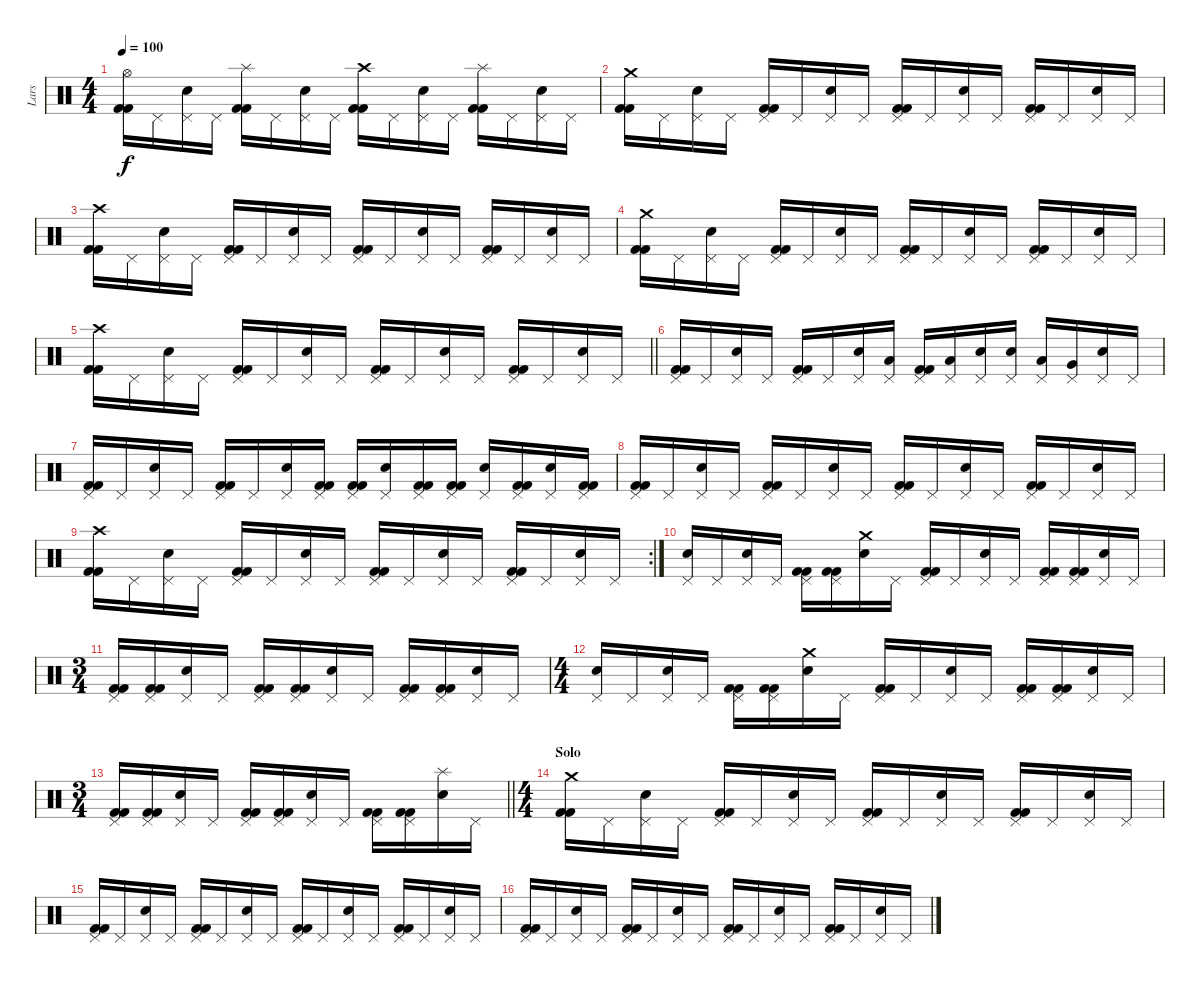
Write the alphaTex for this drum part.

\track ("Lars" "Lars") {instrument percussion}
\staff {score}
\articulation defaults
\ts (4 4)
\tempo 100
\clef neutral
\ks c
("Kick (hit) 2" "Kick (hit) 2" "Hi-Hat (open)").16{dy f} "Pedal Hi-Hat (hit)".16 ("Electric Snare (hit)" "Pedal Hi-Hat (hit)").16 "Pedal Hi-Hat (hit)".16 ("Kick (hit) 2" "Kick (hit) 2" "Splash (hit)").16 "Pedal Hi-Hat (hit)".16 ("Electric Snare (hit)" "Pedal Hi-Hat (hit)").16 "Pedal Hi-Hat (hit)".16 ("Kick (hit) 2" "Kick (hit) 2" "Crash high (hit)").16 "Pedal Hi-Hat (hit)".16 ("Electric Snare (hit)" "Pedal Hi-Hat (hit)").16 "Pedal Hi-Hat (hit)".16 ("Kick (hit) 2" "Kick (hit) 2" "Splash (hit)").16 "Pedal Hi-Hat (hit)".16 ("Electric Snare (hit)" "Pedal Hi-Hat (hit)").16 "Pedal Hi-Hat (hit)".16 |
("Kick (hit) 2" "Kick (hit) 2" "Crash medium (hit)").16 "Pedal Hi-Hat (hit)".16 ("Electric Snare (hit)" "Pedal Hi-Hat (hit)").16 "Pedal Hi-Hat (hit)".16 ("Kick (hit) 2" "Kick (hit) 2" "Pedal Hi-Hat (hit)").16 "Pedal Hi-Hat (hit)".16 ("Electric Snare (hit)" "Pedal Hi-Hat (hit)").16 "Pedal Hi-Hat (hit)".16 ("Kick (hit) 2" "Kick (hit) 2" "Pedal Hi-Hat (hit)").16 "Pedal Hi-Hat (hit)".16 ("Electric Snare (hit)" "Pedal Hi-Hat (hit)").16 "Pedal Hi-Hat (hit)".16 ("Kick (hit) 2" "Kick (hit) 2" "Pedal Hi-Hat (hit)").16 "Pedal Hi-Hat (hit)".16 ("Electric Snare (hit)" "Pedal Hi-Hat (hit)").16 "Pedal Hi-Hat (hit)".16 |
("Kick (hit) 2" "Kick (hit) 2" "Crash high (hit)").16 "Pedal Hi-Hat (hit)".16 ("Electric Snare (hit)" "Pedal Hi-Hat (hit)").16 "Pedal Hi-Hat (hit)".16 ("Kick (hit) 2" "Kick (hit) 2" "Pedal Hi-Hat (hit)").16 "Pedal Hi-Hat (hit)".16 ("Electric Snare (hit)" "Pedal Hi-Hat (hit)").16 "Pedal Hi-Hat (hit)".16 ("Kick (hit) 2" "Kick (hit) 2" "Pedal Hi-Hat (hit)").16 "Pedal Hi-Hat (hit)".16 ("Electric Snare (hit)" "Pedal Hi-Hat (hit)").16 "Pedal Hi-Hat (hit)".16 ("Kick (hit) 2" "Kick (hit) 2" "Pedal Hi-Hat (hit)").16 "Pedal Hi-Hat (hit)".16 ("Electric Snare (hit)" "Pedal Hi-Hat (hit)").16 "Pedal Hi-Hat (hit)".16 |
("Kick (hit) 2" "Kick (hit) 2" "Crash medium (hit)").16 "Pedal Hi-Hat (hit)".16 ("Electric Snare (hit)" "Pedal Hi-Hat (hit)").16 "Pedal Hi-Hat (hit)".16 ("Kick (hit) 2" "Kick (hit) 2" "Pedal Hi-Hat (hit)").16 "Pedal Hi-Hat (hit)".16 ("Electric Snare (hit)" "Pedal Hi-Hat (hit)").16 "Pedal Hi-Hat (hit)".16 ("Kick (hit) 2" "Kick (hit) 2" "Pedal Hi-Hat (hit)").16 "Pedal Hi-Hat (hit)".16 ("Electric Snare (hit)" "Pedal Hi-Hat (hit)").16 "Pedal Hi-Hat (hit)".16 ("Kick (hit) 2" "Kick (hit) 2" "Pedal Hi-Hat (hit)").16 "Pedal Hi-Hat (hit)".16 ("Electric Snare (hit)" "Pedal Hi-Hat (hit)").16 "Pedal Hi-Hat (hit)".16 |
\barLineRight lightlight
("Kick (hit) 2" "Kick (hit) 2" "Crash high (hit)").16 "Pedal Hi-Hat (hit)".16 ("Electric Snare (hit)" "Pedal Hi-Hat (hit)").16 "Pedal Hi-Hat (hit)".16 ("Kick (hit) 2" "Kick (hit) 2" "Pedal Hi-Hat (hit)").16 "Pedal Hi-Hat (hit)".16 ("Electric Snare (hit)" "Pedal Hi-Hat (hit)").16 "Pedal Hi-Hat (hit)".16 ("Kick (hit) 2" "Kick (hit) 2" "Pedal Hi-Hat (hit)").16 "Pedal Hi-Hat (hit)".16 ("Electric Snare (hit)" "Pedal Hi-Hat (hit)").16 "Pedal Hi-Hat (hit)".16 ("Kick (hit) 2" "Kick (hit) 2" "Pedal Hi-Hat (hit)").16 "Pedal Hi-Hat (hit)".16 ("Electric Snare (hit)" "Pedal Hi-Hat (hit)").16 "Pedal Hi-Hat (hit)".16 |
\section ("" "")
("Kick (hit) 2" "Kick (hit) 2" "Pedal Hi-Hat (hit)").16 "Pedal Hi-Hat (hit)".16 ("Electric Snare (hit)" "Pedal Hi-Hat (hit)").16 "Pedal Hi-Hat (hit)".16 ("Kick (hit) 2" "Kick (hit) 2" "Pedal Hi-Hat (hit)").16 "Pedal Hi-Hat (hit)".16 ("Electric Snare (hit)" "Pedal Hi-Hat (hit)").16 ("Low Tom (hit)" "Pedal Hi-Hat (hit)").16 ("Kick (hit) 2" "Kick (hit) 2" "Pedal Hi-Hat (hit)").16 ("Low Tom (hit)" "Pedal Hi-Hat (hit)").16 ("Electric Snare (hit)" "Pedal Hi-Hat (hit)").16 ("Electric Snare (hit)" "Pedal Hi-Hat (hit)").16 ("Low Tom (hit)" "Pedal Hi-Hat (hit)").16 ("Very Low Tom (hit)" "Pedal Hi-Hat (hit)").16 ("Electric Snare (hit)" "Pedal Hi-Hat (hit)").16 "Pedal Hi-Hat (hit)".16 |
("Kick (hit) 2" "Kick (hit) 2" "Pedal Hi-Hat (hit)").16 "Pedal Hi-Hat (hit)".16 ("Electric Snare (hit)" "Pedal Hi-Hat (hit)").16 "Pedal Hi-Hat (hit)".16 ("Kick (hit) 2" "Kick (hit) 2" "Pedal Hi-Hat (hit)").16 "Pedal Hi-Hat (hit)".16 ("Electric Snare (hit)" "Pedal Hi-Hat (hit)").16 ("Kick (hit) 2" "Kick (hit) 2" "Pedal Hi-Hat (hit)").16 ("Kick (hit) 2" "Kick (hit) 2" "Pedal Hi-Hat (hit)").16 ("Electric Snare (hit)" "Pedal Hi-Hat (hit)").16 ("Kick (hit) 2" "Kick (hit) 2" "Pedal Hi-Hat (hit)").16 ("Kick (hit) 2" "Kick (hit) 2" "Pedal Hi-Hat (hit)").16 ("Electric Snare (hit)" "Pedal Hi-Hat (hit)").16 ("Kick (hit) 2" "Kick (hit) 2" "Pedal Hi-Hat (hit)").16 ("Electric Snare (hit)" "Pedal Hi-Hat (hit)").16 ("Kick (hit) 2" "Kick (hit) 2" "Pedal Hi-Hat (hit)").16 |
("Kick (hit) 2" "Kick (hit) 2" "Pedal Hi-Hat (hit)").16 "Pedal Hi-Hat (hit)".16 ("Electric Snare (hit)" "Pedal Hi-Hat (hit)").16 "Pedal Hi-Hat (hit)".16 ("Kick (hit) 2" "Kick (hit) 2" "Pedal Hi-Hat (hit)").16 "Pedal Hi-Hat (hit)".16 ("Electric Snare (hit)" "Pedal Hi-Hat (hit)").16 "Pedal Hi-Hat (hit)".16 ("Kick (hit) 2" "Kick (hit) 2" "Pedal Hi-Hat (hit)").16 "Pedal Hi-Hat (hit)".16 ("Electric Snare (hit)" "Pedal Hi-Hat (hit)").16 "Pedal Hi-Hat (hit)".16 ("Kick (hit) 2" "Kick (hit) 2" "Pedal Hi-Hat (hit)").16 "Pedal Hi-Hat (hit)".16 ("Electric Snare (hit)" "Pedal Hi-Hat (hit)").16 "Pedal Hi-Hat (hit)".16 |
\rc 2
("Kick (hit) 2" "Kick (hit) 2" "Crash high (hit)").16 "Pedal Hi-Hat (hit)".16 ("Electric Snare (hit)" "Pedal Hi-Hat (hit)").16 "Pedal Hi-Hat (hit)".16 ("Kick (hit) 2" "Kick (hit) 2" "Pedal Hi-Hat (hit)").16 "Pedal Hi-Hat (hit)".16 ("Electric Snare (hit)" "Pedal Hi-Hat (hit)").16 "Pedal Hi-Hat (hit)".16 ("Kick (hit) 2" "Kick (hit) 2" "Pedal Hi-Hat (hit)").16 "Pedal Hi-Hat (hit)".16 ("Electric Snare (hit)" "Pedal Hi-Hat (hit)").16 "Pedal Hi-Hat (hit)".16 ("Kick (hit) 2" "Kick (hit) 2" "Pedal Hi-Hat (hit)").16 "Pedal Hi-Hat (hit)".16 ("Electric Snare (hit)" "Pedal Hi-Hat (hit)").16 "Pedal Hi-Hat (hit)".16 |
("Electric Snare (hit)" "Pedal Hi-Hat (hit)").16 "Pedal Hi-Hat (hit)".16 ("Electric Snare (hit)" "Pedal Hi-Hat (hit)").16 "Pedal Hi-Hat (hit)".16 ("Kick (hit) 2" "Kick (hit) 2" "Pedal Hi-Hat (hit)").16 ("Kick (hit) 2" "Kick (hit) 2" "Pedal Hi-Hat (hit)").16 ("Electric Snare (hit)" "Crash medium (hit)").16 "Pedal Hi-Hat (hit)".16 ("Kick (hit) 2" "Kick (hit) 2" "Pedal Hi-Hat (hit)").16 "Pedal Hi-Hat (hit)".16 ("Electric Snare (hit)" "Pedal Hi-Hat (hit)").16 "Pedal Hi-Hat (hit)".16 ("Kick (hit) 2" "Kick (hit) 2" "Pedal Hi-Hat (hit)").16 ("Kick (hit) 2" "Kick (hit) 2" "Pedal Hi-Hat (hit)").16 ("Electric Snare (hit)" "Pedal Hi-Hat (hit)").16 "Pedal Hi-Hat (hit)".16 |
\ts (3 4)
("Kick (hit) 2" "Kick (hit) 2" "Pedal Hi-Hat (hit)").16 ("Kick (hit) 2" "Kick (hit) 2" "Pedal Hi-Hat (hit)").16 ("Electric Snare (hit)" "Pedal Hi-Hat (hit)").16 "Pedal Hi-Hat (hit)".16 ("Kick (hit) 2" "Kick (hit) 2" "Pedal Hi-Hat (hit)").16 ("Kick (hit) 2" "Kick (hit) 2" "Pedal Hi-Hat (hit)").16 ("Electric Snare (hit)" "Pedal Hi-Hat (hit)").16 "Pedal Hi-Hat (hit)".16 ("Kick (hit) 2" "Kick (hit) 2" "Pedal Hi-Hat (hit)").16 ("Kick (hit) 2" "Kick (hit) 2" "Pedal Hi-Hat (hit)").16 ("Electric Snare (hit)" "Pedal Hi-Hat (hit)").16 "Pedal Hi-Hat (hit)".16 |
\ts (4 4)
("Electric Snare (hit)" "Pedal Hi-Hat (hit)").16 "Pedal Hi-Hat (hit)".16 ("Electric Snare (hit)" "Pedal Hi-Hat (hit)").16 "Pedal Hi-Hat (hit)".16 ("Kick (hit) 2" "Kick (hit) 2" "Pedal Hi-Hat (hit)").16 ("Kick (hit) 2" "Kick (hit) 2" "Pedal Hi-Hat (hit)").16 ("Electric Snare (hit)" "Crash medium (hit)").16 "Pedal Hi-Hat (hit)".16 ("Kick (hit) 2" "Kick (hit) 2" "Pedal Hi-Hat (hit)").16 "Pedal Hi-Hat (hit)".16 ("Electric Snare (hit)" "Pedal Hi-Hat (hit)").16 "Pedal Hi-Hat (hit)".16 ("Kick (hit) 2" "Kick (hit) 2" "Pedal Hi-Hat (hit)").16 ("Kick (hit) 2" "Kick (hit) 2" "Pedal Hi-Hat (hit)").16 ("Electric Snare (hit)" "Pedal Hi-Hat (hit)").16 "Pedal Hi-Hat (hit)".16 |
\ts (3 4)
\barLineRight lightlight
("Kick (hit) 2" "Kick (hit) 2" "Pedal Hi-Hat (hit)").16 ("Kick (hit) 2" "Kick (hit) 2" "Pedal Hi-Hat (hit)").16 ("Electric Snare (hit)" "Pedal Hi-Hat (hit)").16 "Pedal Hi-Hat (hit)".16 ("Kick (hit) 2" "Kick (hit) 2" "Pedal Hi-Hat (hit)").16 ("Kick (hit) 2" "Kick (hit) 2" "Pedal Hi-Hat (hit)").16 ("Electric Snare (hit)" "Pedal Hi-Hat (hit)").16 "Pedal Hi-Hat (hit)".16 ("Kick (hit) 2" "Kick (hit) 2" "Pedal Hi-Hat (hit)").16 ("Kick (hit) 2" "Kick (hit) 2" "Pedal Hi-Hat (hit)").16 ("Electric Snare (hit)" "Splash (hit)").16 "Pedal Hi-Hat (hit)".16 |
\ts (4 4)
\section ("" "Solo")
("Kick (hit) 2" "Kick (hit) 2" "Crash medium (hit)").16 "Pedal Hi-Hat (hit)".16 ("Electric Snare (hit)" "Pedal Hi-Hat (hit)").16 "Pedal Hi-Hat (hit)".16 ("Kick (hit) 2" "Kick (hit) 2" "Pedal Hi-Hat (hit)").16 "Pedal Hi-Hat (hit)".16 ("Electric Snare (hit)" "Pedal Hi-Hat (hit)").16 "Pedal Hi-Hat (hit)".16 ("Kick (hit) 2" "Kick (hit) 2" "Pedal Hi-Hat (hit)").16 "Pedal Hi-Hat (hit)".16 ("Electric Snare (hit)" "Pedal Hi-Hat (hit)").16 "Pedal Hi-Hat (hit)".16 ("Kick (hit) 2" "Kick (hit) 2" "Pedal Hi-Hat (hit)").16 "Pedal Hi-Hat (hit)".16 ("Electric Snare (hit)" "Pedal Hi-Hat (hit)").16 "Pedal Hi-Hat (hit)".16 |
("Kick (hit) 2" "Kick (hit) 2" "Pedal Hi-Hat (hit)").16 "Pedal Hi-Hat (hit)".16 ("Electric Snare (hit)" "Pedal Hi-Hat (hit)").16 "Pedal Hi-Hat (hit)".16 ("Kick (hit) 2" "Kick (hit) 2" "Pedal Hi-Hat (hit)").16 "Pedal Hi-Hat (hit)".16 ("Electric Snare (hit)" "Pedal Hi-Hat (hit)").16 "Pedal Hi-Hat (hit)".16 ("Kick (hit) 2" "Kick (hit) 2" "Pedal Hi-Hat (hit)").16 "Pedal Hi-Hat (hit)".16 ("Electric Snare (hit)" "Pedal Hi-Hat (hit)").16 "Pedal Hi-Hat (hit)".16 ("Kick (hit) 2" "Kick (hit) 2" "Pedal Hi-Hat (hit)").16 "Pedal Hi-Hat (hit)".16 ("Electric Snare (hit)" "Pedal Hi-Hat (hit)").16 "Pedal Hi-Hat (hit)".16 |
("Kick (hit) 2" "Kick (hit) 2" "Pedal Hi-Hat (hit)").16 "Pedal Hi-Hat (hit)".16 ("Electric Snare (hit)" "Pedal Hi-Hat (hit)").16 "Pedal Hi-Hat (hit)".16 ("Kick (hit) 2" "Kick (hit) 2" "Pedal Hi-Hat (hit)").16 "Pedal Hi-Hat (hit)".16 ("Electric Snare (hit)" "Pedal Hi-Hat (hit)").16 "Pedal Hi-Hat (hit)".16 ("Kick (hit) 2" "Kick (hit) 2" "Pedal Hi-Hat (hit)").16 "Pedal Hi-Hat (hit)".16 ("Electric Snare (hit)" "Pedal Hi-Hat (hit)").16 "Pedal Hi-Hat (hit)".16 ("Kick (hit) 2" "Kick (hit) 2" "Pedal Hi-Hat (hit)").16 "Pedal Hi-Hat (hit)".16 ("Electric Snare (hit)" "Pedal Hi-Hat (hit)").16 "Pedal Hi-Hat (hit)".16
